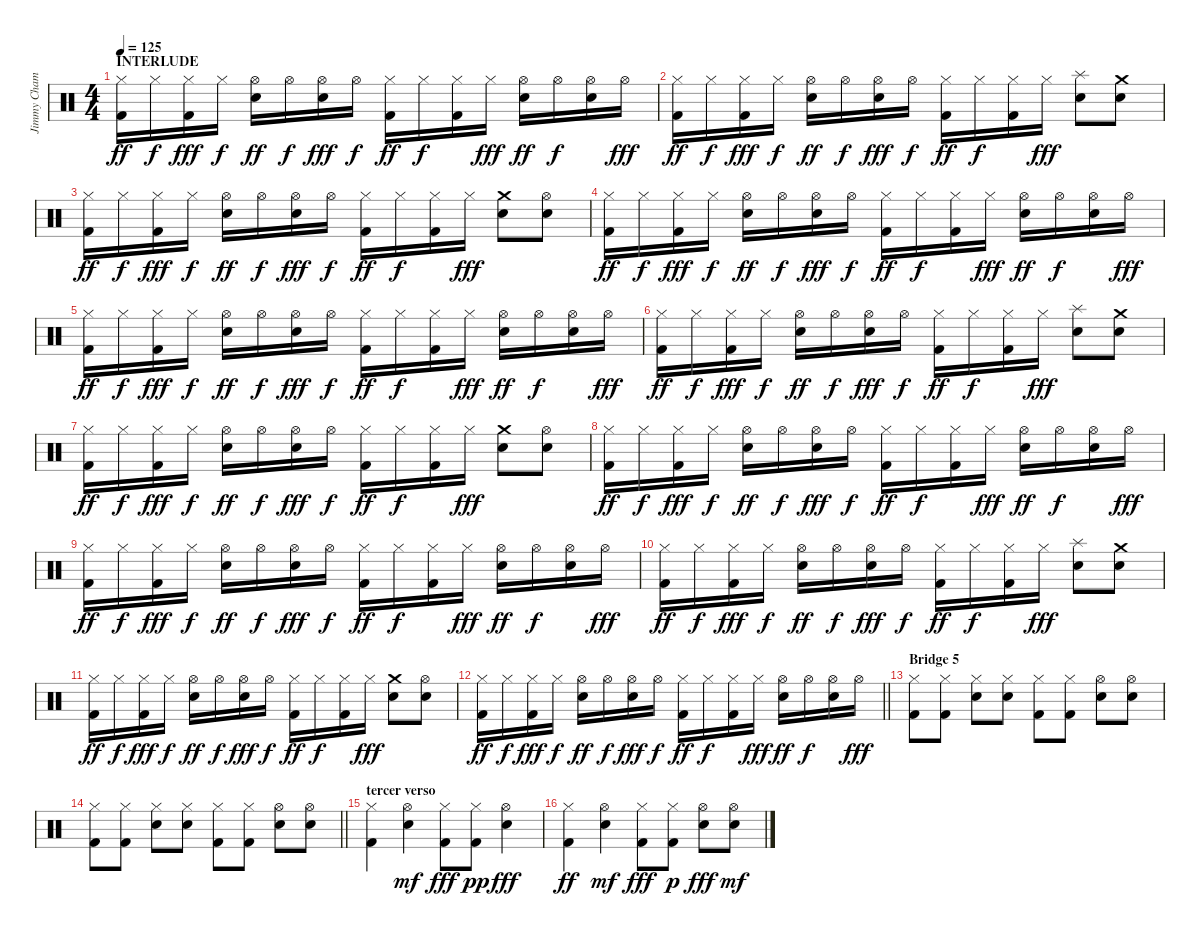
\track ("Jimmy Chamberline" "Jimmy Cham") {instrument percussion}
\staff {score}
\articulation defaults
\ts (4 4)
\section ("" "INTERLUDE")
\tempo 125
\clef neutral
\ks c
("Hi-Hat (closed)" "Kick (hit) 2").16{dy ff} "Hi-Hat (closed)".16{dy f} ("Hi-Hat (closed)" "Kick (hit) 2").16{dy fff} "Hi-Hat (closed)".16{dy f} ("Hi-Hat (open)" "Snare (hit) 2").16{dy ff} "Hi-Hat (open)".16{dy f} ("Hi-Hat (open)" "Snare (hit) 2").16{dy fff} "Hi-Hat (open)".16{dy f} ("Hi-Hat (closed)" "Kick (hit) 2").16{dy ff} "Hi-Hat (closed)".16{dy f} ("Hi-Hat (closed)" "Kick (hit) 2").16 "Hi-Hat (closed)".16{dy fff} ("Hi-Hat (open)" "Snare (hit) 2").16{dy ff} "Hi-Hat (open)".16{dy f} ("Hi-Hat (open)" "Snare (hit) 2").16 "Hi-Hat (open)".16{dy fff} |
("Hi-Hat (closed)" "Kick (hit) 2").16{dy ff} "Hi-Hat (closed)".16{dy f} ("Hi-Hat (closed)" "Kick (hit) 2").16{dy fff} "Hi-Hat (closed)".16{dy f} ("Hi-Hat (open)" "Snare (hit) 2").16{dy ff} "Hi-Hat (open)".16{dy f} ("Hi-Hat (open)" "Snare (hit) 2").16{dy fff} "Hi-Hat (open)".16{dy f} ("Hi-Hat (closed)" "Kick (hit) 2").16{dy ff} "Hi-Hat (closed)".16{dy f} ("Hi-Hat (closed)" "Kick (hit) 2").16 "Hi-Hat (closed)".16{dy fff} ("Splash (hit)" "Snare (hit) 2").8 ("Crash medium (hit)" "Snare (hit) 2").8 |
("Hi-Hat (closed)" "Kick (hit) 2").16{dy ff} "Hi-Hat (closed)".16{dy f} ("Hi-Hat (closed)" "Kick (hit) 2").16{dy fff} "Hi-Hat (closed)".16{dy f} ("Hi-Hat (open)" "Snare (hit) 2").16{dy ff} "Hi-Hat (open)".16{dy f} ("Hi-Hat (open)" "Snare (hit) 2").16{dy fff} "Hi-Hat (open)".16{dy f} ("Hi-Hat (closed)" "Kick (hit) 2").16{dy ff} "Hi-Hat (closed)".16{dy f} ("Hi-Hat (closed)" "Kick (hit) 2").16 "Hi-Hat (closed)".16{dy fff} ("Crash medium (hit)" "Snare (hit) 2").8 ("Hi-Hat (open)" "Snare (hit) 2").8 |
("Hi-Hat (closed)" "Kick (hit) 2").16{dy ff} "Hi-Hat (closed)".16{dy f} ("Hi-Hat (closed)" "Kick (hit) 2").16{dy fff} "Hi-Hat (closed)".16{dy f} ("Hi-Hat (open)" "Snare (hit) 2").16{dy ff} "Hi-Hat (open)".16{dy f} ("Hi-Hat (open)" "Snare (hit) 2").16{dy fff} "Hi-Hat (open)".16{dy f} ("Hi-Hat (closed)" "Kick (hit) 2").16{dy ff} "Hi-Hat (closed)".16{dy f} ("Hi-Hat (closed)" "Kick (hit) 2").16 "Hi-Hat (closed)".16{dy fff} ("Hi-Hat (open)" "Snare (hit) 2").16{dy ff} "Hi-Hat (open)".16{dy f} ("Hi-Hat (open)" "Snare (hit) 2").16 "Hi-Hat (open)".16{dy fff} |
("Hi-Hat (closed)" "Kick (hit) 2").16{dy ff} "Hi-Hat (closed)".16{dy f} ("Hi-Hat (closed)" "Kick (hit) 2").16{dy fff} "Hi-Hat (closed)".16{dy f} ("Hi-Hat (open)" "Snare (hit) 2").16{dy ff} "Hi-Hat (open)".16{dy f} ("Hi-Hat (open)" "Snare (hit) 2").16{dy fff} "Hi-Hat (open)".16{dy f} ("Hi-Hat (closed)" "Kick (hit) 2").16{dy ff} "Hi-Hat (closed)".16{dy f} ("Hi-Hat (closed)" "Kick (hit) 2").16 "Hi-Hat (closed)".16{dy fff} ("Hi-Hat (open)" "Snare (hit) 2").16{dy ff} "Hi-Hat (open)".16{dy f} ("Hi-Hat (open)" "Snare (hit) 2").16 "Hi-Hat (open)".16{dy fff} |
("Hi-Hat (closed)" "Kick (hit) 2").16{dy ff} "Hi-Hat (closed)".16{dy f} ("Hi-Hat (closed)" "Kick (hit) 2").16{dy fff} "Hi-Hat (closed)".16{dy f} ("Hi-Hat (open)" "Snare (hit) 2").16{dy ff} "Hi-Hat (open)".16{dy f} ("Hi-Hat (open)" "Snare (hit) 2").16{dy fff} "Hi-Hat (open)".16{dy f} ("Hi-Hat (closed)" "Kick (hit) 2").16{dy ff} "Hi-Hat (closed)".16{dy f} ("Hi-Hat (closed)" "Kick (hit) 2").16 "Hi-Hat (closed)".16{dy fff} ("Splash (hit)" "Snare (hit) 2").8 ("Crash medium (hit)" "Snare (hit) 2").8 |
("Hi-Hat (closed)" "Kick (hit) 2").16{dy ff} "Hi-Hat (closed)".16{dy f} ("Hi-Hat (closed)" "Kick (hit) 2").16{dy fff} "Hi-Hat (closed)".16{dy f} ("Hi-Hat (open)" "Snare (hit) 2").16{dy ff} "Hi-Hat (open)".16{dy f} ("Hi-Hat (open)" "Snare (hit) 2").16{dy fff} "Hi-Hat (open)".16{dy f} ("Hi-Hat (closed)" "Kick (hit) 2").16{dy ff} "Hi-Hat (closed)".16{dy f} ("Hi-Hat (closed)" "Kick (hit) 2").16 "Hi-Hat (closed)".16{dy fff} ("Crash medium (hit)" "Snare (hit) 2").8 ("Hi-Hat (open)" "Snare (hit) 2").8 |
("Hi-Hat (closed)" "Kick (hit) 2").16{dy ff} "Hi-Hat (closed)".16{dy f} ("Hi-Hat (closed)" "Kick (hit) 2").16{dy fff} "Hi-Hat (closed)".16{dy f} ("Hi-Hat (open)" "Snare (hit) 2").16{dy ff} "Hi-Hat (open)".16{dy f} ("Hi-Hat (open)" "Snare (hit) 2").16{dy fff} "Hi-Hat (open)".16{dy f} ("Hi-Hat (closed)" "Kick (hit) 2").16{dy ff} "Hi-Hat (closed)".16{dy f} ("Hi-Hat (closed)" "Kick (hit) 2").16 "Hi-Hat (closed)".16{dy fff} ("Hi-Hat (open)" "Snare (hit) 2").16{dy ff} "Hi-Hat (open)".16{dy f} ("Hi-Hat (open)" "Snare (hit) 2").16 "Hi-Hat (open)".16{dy fff} |
("Hi-Hat (closed)" "Kick (hit) 2").16{dy ff} "Hi-Hat (closed)".16{dy f} ("Hi-Hat (closed)" "Kick (hit) 2").16{dy fff} "Hi-Hat (closed)".16{dy f} ("Hi-Hat (open)" "Snare (hit) 2").16{dy ff} "Hi-Hat (open)".16{dy f} ("Hi-Hat (open)" "Snare (hit) 2").16{dy fff} "Hi-Hat (open)".16{dy f} ("Hi-Hat (closed)" "Kick (hit) 2").16{dy ff} "Hi-Hat (closed)".16{dy f} ("Hi-Hat (closed)" "Kick (hit) 2").16 "Hi-Hat (closed)".16{dy fff} ("Hi-Hat (open)" "Snare (hit) 2").16{dy ff} "Hi-Hat (open)".16{dy f} ("Hi-Hat (open)" "Snare (hit) 2").16 "Hi-Hat (open)".16{dy fff} |
("Hi-Hat (closed)" "Kick (hit) 2").16{dy ff} "Hi-Hat (closed)".16{dy f} ("Hi-Hat (closed)" "Kick (hit) 2").16{dy fff} "Hi-Hat (closed)".16{dy f} ("Hi-Hat (open)" "Snare (hit) 2").16{dy ff} "Hi-Hat (open)".16{dy f} ("Hi-Hat (open)" "Snare (hit) 2").16{dy fff} "Hi-Hat (open)".16{dy f} ("Hi-Hat (closed)" "Kick (hit) 2").16{dy ff} "Hi-Hat (closed)".16{dy f} ("Hi-Hat (closed)" "Kick (hit) 2").16 "Hi-Hat (closed)".16{dy fff} ("Splash (hit)" "Snare (hit) 2").8 ("Crash medium (hit)" "Snare (hit) 2").8 |
("Hi-Hat (closed)" "Kick (hit) 2").16{dy ff} "Hi-Hat (closed)".16{dy f} ("Hi-Hat (closed)" "Kick (hit) 2").16{dy fff} "Hi-Hat (closed)".16{dy f} ("Hi-Hat (open)" "Snare (hit) 2").16{dy ff} "Hi-Hat (open)".16{dy f} ("Hi-Hat (open)" "Snare (hit) 2").16{dy fff} "Hi-Hat (open)".16{dy f} ("Hi-Hat (closed)" "Kick (hit) 2").16{dy ff} "Hi-Hat (closed)".16{dy f} ("Hi-Hat (closed)" "Kick (hit) 2").16 "Hi-Hat (closed)".16{dy fff} ("Crash medium (hit)" "Snare (hit) 2").8 ("Hi-Hat (open)" "Snare (hit) 2").8 |
\barLineRight lightlight
("Hi-Hat (closed)" "Kick (hit) 2").16{dy ff} "Hi-Hat (closed)".16{dy f} ("Hi-Hat (closed)" "Kick (hit) 2").16{dy fff} "Hi-Hat (closed)".16{dy f} ("Hi-Hat (open)" "Snare (hit) 2").16{dy ff} "Hi-Hat (open)".16{dy f} ("Hi-Hat (open)" "Snare (hit) 2").16{dy fff} "Hi-Hat (open)".16{dy f} ("Hi-Hat (closed)" "Kick (hit) 2").16{dy ff} "Hi-Hat (closed)".16{dy f} ("Hi-Hat (closed)" "Kick (hit) 2").16 "Hi-Hat (closed)".16{dy fff} ("Hi-Hat (open)" "Snare (hit) 2").16{dy ff} "Hi-Hat (open)".16{dy f} ("Hi-Hat (open)" "Snare (hit) 2").16 "Hi-Hat (open)".16{dy fff} |
\section ("" "Bridge 5")
("Hi-Hat (closed)" "Kick (hit) 2").8 ("Hi-Hat (closed)" "Kick (hit) 2").8 ("Hi-Hat (closed)" "Snare (hit) 2").8 ("Hi-Hat (closed)" "Snare (hit) 2").8 ("Hi-Hat (closed)" "Kick (hit) 2").8 ("Hi-Hat (closed)" "Kick (hit) 2").8 ("Hi-Hat (open)" "Snare (hit) 2").8 ("Hi-Hat (open)" "Snare (hit) 2").8 |
\barLineRight lightlight
("Hi-Hat (closed)" "Kick (hit) 2").8 ("Hi-Hat (closed)" "Kick (hit) 2").8 ("Hi-Hat (closed)" "Snare (hit) 2").8 ("Hi-Hat (closed)" "Snare (hit) 2").8 ("Hi-Hat (closed)" "Kick (hit) 2").8 ("Hi-Hat (closed)" "Kick (hit) 2").8 ("Hi-Hat (open)" "Snare (hit) 2").8 ("Hi-Hat (open)" "Snare (hit) 2").8 |
\section ("" "tercer verso")
("Hi-Hat (closed)" "Kick (hit) 2").4 ("Hi-Hat (open)" "Snare (hit) 2").4{dy mf} ("Hi-Hat (closed)" "Kick (hit) 2").8{dy fff} ("Hi-Hat (closed)" "Kick (hit) 2").8{dy pp} ("Hi-Hat (open)" "Snare (hit) 2").4{dy fff} |
("Hi-Hat (closed)" "Kick (hit) 2").4{dy ff} ("Hi-Hat (open)" "Snare (hit) 2").4{dy mf} ("Hi-Hat (closed)" "Kick (hit) 2").8{dy fff} ("Hi-Hat (closed)" "Kick (hit) 2").8{dy p} ("Hi-Hat (open)" "Snare (hit) 2").8{dy fff} ("Hi-Hat (open)" "Snare (hit) 2").8{dy mf}
